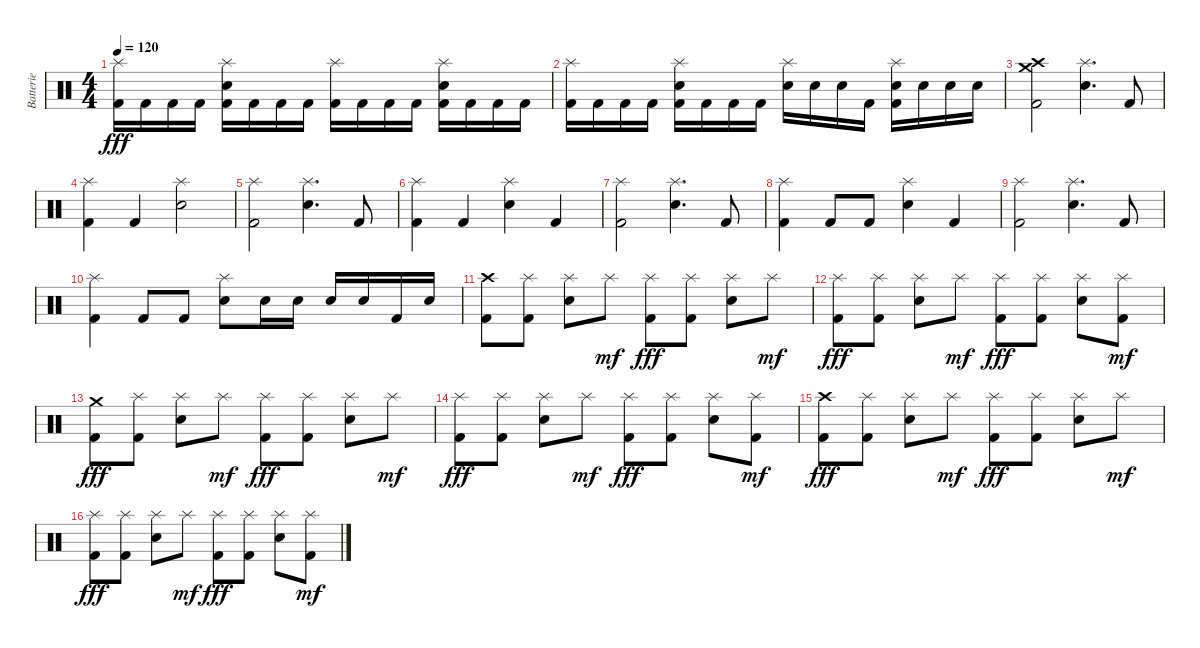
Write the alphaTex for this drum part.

\track ("Batterie" "Batterie") {instrument percussion}
\staff {score}
\articulation defaults
\ts (4 4)
\tempo 120
\clef neutral
\ks c
("Splash (hit)" "Kick (hit) 2").16{dy fff} "Kick (hit) 2".16 "Kick (hit) 2".16 "Kick (hit) 2".16 ("Splash (hit)" "Electric Snare (hit)" "Kick (hit) 2").16 "Kick (hit) 2".16 "Kick (hit) 2".16 "Kick (hit) 2".16 ("Splash (hit)" "Kick (hit) 2").16 "Kick (hit) 2".16 "Kick (hit) 2".16 "Kick (hit) 2".16 ("Splash (hit)" "Electric Snare (hit)" "Kick (hit) 2").16 "Kick (hit) 2".16 "Kick (hit) 2".16 "Kick (hit) 2".16 |
("Splash (hit)" "Kick (hit) 2").16 "Kick (hit) 2".16 "Kick (hit) 2".16 "Kick (hit) 2".16 ("Splash (hit)" "Electric Snare (hit)" "Kick (hit) 2").16 "Kick (hit) 2".16 "Kick (hit) 2".16 "Kick (hit) 2".16 ("Splash (hit)" "Electric Snare (hit)").16 "Electric Snare (hit)".16 "Electric Snare (hit)".16 "Kick (hit) 2".16 ("Splash (hit)" "Electric Snare (hit)" "Kick (hit) 2").16 "Electric Snare (hit)".16 "Electric Snare (hit)".16 "Electric Snare (hit)".16 |
("Crash high (hit)" "Crash medium (hit)" "Kick (hit) 2").2 ("Splash (hit)" "Electric Snare (hit)").4{d} "Kick (hit) 2".8 |
("Splash (hit)" "Kick (hit) 2").4 "Kick (hit) 2".4 ("Splash (hit)" "Electric Snare (hit)").2 |
("Splash (hit)" "Kick (hit) 2").2 ("Splash (hit)" "Electric Snare (hit)").4{d} "Kick (hit) 2".8 |
("Splash (hit)" "Kick (hit) 2").4 "Kick (hit) 2".4 ("Splash (hit)" "Electric Snare (hit)").4 "Kick (hit) 2".4 |
("Splash (hit)" "Kick (hit) 2").2 ("Splash (hit)" "Electric Snare (hit)").4{d} "Kick (hit) 2".8 |
("Splash (hit)" "Kick (hit) 2").4 "Kick (hit) 2".8 "Kick (hit) 2".8 ("Splash (hit)" "Electric Snare (hit)").4 "Kick (hit) 2".4 |
("Splash (hit)" "Kick (hit) 2").2 ("Splash (hit)" "Electric Snare (hit)").4{d} "Kick (hit) 2".8 |
("Splash (hit)" "Kick (hit) 2").4 "Kick (hit) 2".8 "Kick (hit) 2".8 ("Splash (hit)" "Electric Snare (hit)").8 "Electric Snare (hit)".16 "Electric Snare (hit)".16 "Electric Snare (hit)".16 "Electric Snare (hit)".16 "Kick (hit) 2".16 "Electric Snare (hit)".16 |
("Crash high (hit)" "Kick (hit) 2").8 ("Splash (hit)" "Kick (hit) 2").8 ("Splash (hit)" "Electric Snare (hit)").8 "Splash (hit)".8{dy mf} ("Splash (hit)" "Kick (hit) 2").8{dy fff} ("Splash (hit)" "Kick (hit) 2").8 ("Splash (hit)" "Electric Snare (hit)").8 "Splash (hit)".8{dy mf} |
("Splash (hit)" "Kick (hit) 2").8{dy fff} ("Splash (hit)" "Kick (hit) 2").8 ("Splash (hit)" "Electric Snare (hit)").8 "Splash (hit)".8{dy mf} ("Splash (hit)" "Kick (hit) 2").8{dy fff} ("Splash (hit)" "Kick (hit) 2").8 ("Splash (hit)" "Electric Snare (hit)").8 ("Splash (hit)" "Kick (hit) 2").8{dy mf} |
("Crash medium (hit)" "Kick (hit) 2").8{dy fff} ("Splash (hit)" "Kick (hit) 2").8 ("Splash (hit)" "Electric Snare (hit)").8 "Splash (hit)".8{dy mf} ("Splash (hit)" "Kick (hit) 2").8{dy fff} ("Splash (hit)" "Kick (hit) 2").8 ("Splash (hit)" "Electric Snare (hit)").8 "Splash (hit)".8{dy mf} |
("Splash (hit)" "Kick (hit) 2").8{dy fff} ("Splash (hit)" "Kick (hit) 2").8 ("Splash (hit)" "Electric Snare (hit)").8 "Splash (hit)".8{dy mf} ("Splash (hit)" "Kick (hit) 2").8{dy fff} ("Splash (hit)" "Kick (hit) 2").8 ("Splash (hit)" "Electric Snare (hit)").8 ("Splash (hit)" "Kick (hit) 2").8{dy mf} |
("Crash high (hit)" "Kick (hit) 2").8{dy fff} ("Splash (hit)" "Kick (hit) 2").8 ("Splash (hit)" "Electric Snare (hit)").8 "Splash (hit)".8{dy mf} ("Splash (hit)" "Kick (hit) 2").8{dy fff} ("Splash (hit)" "Kick (hit) 2").8 ("Splash (hit)" "Electric Snare (hit)").8 "Splash (hit)".8{dy mf} |
("Splash (hit)" "Kick (hit) 2").8{dy fff} ("Splash (hit)" "Kick (hit) 2").8 ("Splash (hit)" "Electric Snare (hit)").8 "Splash (hit)".8{dy mf} ("Splash (hit)" "Kick (hit) 2").8{dy fff} ("Splash (hit)" "Kick (hit) 2").8 ("Splash (hit)" "Electric Snare (hit)").8 ("Splash (hit)" "Kick (hit) 2").8{dy mf}
